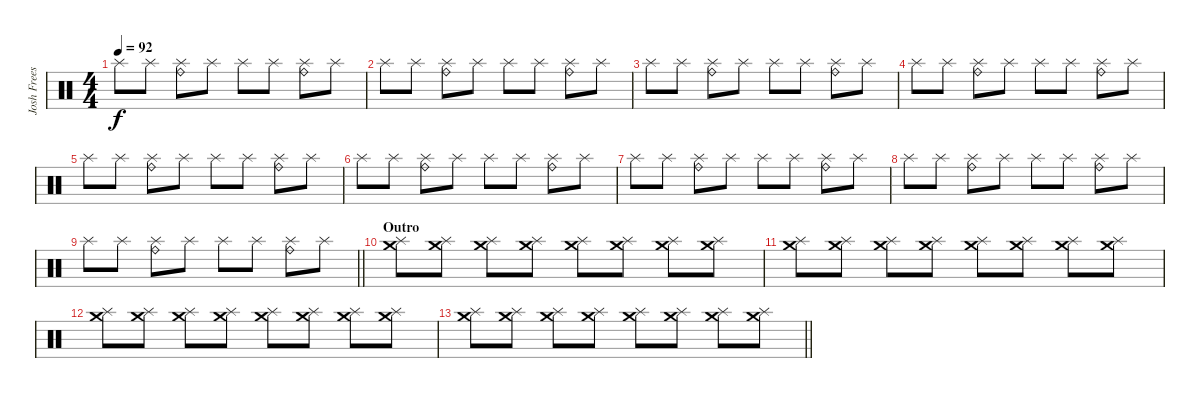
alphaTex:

\track ("Josh Freese (Studio Drummer)" "Josh Frees") {instrument percussion}
\staff {score}
\articulation defaults
\ts (4 4)
\tempo 92
\clef neutral
\ks c "Splash (hit)".8{dy f} "Splash (hit)".8
("Splash (hit)" "Ride (bell)").8 "Splash (hit)".8 "Splash (hit)".8 "Splash (hit)".8 ("Splash (hit)" "Ride (bell)").8 "Splash (hit)".8 |
"Splash (hit)".8 "Splash (hit)".8 ("Splash (hit)" "Ride (bell)").8 "Splash (hit)".8 "Splash (hit)".8 "Splash (hit)".8 ("Splash (hit)" "Ride (bell)").8 "Splash (hit)".8 |
"Splash (hit)".8 "Splash (hit)".8 ("Splash (hit)" "Ride (bell)").8 "Splash (hit)".8 "Splash (hit)".8 "Splash (hit)".8 ("Splash (hit)" "Ride (bell)").8 "Splash (hit)".8 |
"Splash (hit)".8 "Splash (hit)".8 ("Splash (hit)" "Ride (bell)").8 "Splash (hit)".8 "Splash (hit)".8 "Splash (hit)".8 ("Splash (hit)" "Ride (bell)").8 "Splash (hit)".8 |
"Splash (hit)".8 "Splash (hit)".8 ("Splash (hit)" "Ride (bell)").8 "Splash (hit)".8 "Splash (hit)".8 "Splash (hit)".8 ("Splash (hit)" "Ride (bell)").8 "Splash (hit)".8 |
"Splash (hit)".8 "Splash (hit)".8 ("Splash (hit)" "Ride (bell)").8 "Splash (hit)".8 "Splash (hit)".8 "Splash (hit)".8 ("Splash (hit)" "Ride (bell)").8 "Splash (hit)".8 |
"Splash (hit)".8 "Splash (hit)".8 ("Splash (hit)" "Ride (bell)").8 "Splash (hit)".8 "Splash (hit)".8 "Splash (hit)".8 ("Splash (hit)" "Ride (bell)").8 "Splash (hit)".8 |
"Splash (hit)".8 "Splash (hit)".8 ("Splash (hit)" "Ride (bell)").8 "Splash (hit)".8 "Splash (hit)".8 "Splash (hit)".8 ("Splash (hit)" "Ride (bell)").8 "Splash (hit)".8 |
\barLineRight lightlight "Splash (hit)".8 "Splash (hit)".8
("Splash (hit)" "Ride (bell)").8 "Splash (hit)".8 "Splash (hit)".8 "Splash (hit)".8 ("Splash (hit)" "Ride (bell)").8 "Splash (hit)".8 |
\section ("" "Outro")
("Splash (hit)" "Crash medium (hit)").8 ("Splash (hit)" "Crash medium (hit)").8 ("Splash (hit)" "Crash medium (hit)").8 ("Splash (hit)" "Crash medium (hit)").8 ("Splash (hit)" "Crash medium (hit)").8 ("Splash (hit)" "Crash medium (hit)").8 ("Splash (hit)" "Crash medium (hit)").8 ("Splash (hit)" "Crash medium (hit)").8 |
("Splash (hit)" "Crash medium (hit)").8 ("Splash (hit)" "Crash medium (hit)").8 ("Splash (hit)" "Crash medium (hit)").8 ("Splash (hit)" "Crash medium (hit)").8 ("Splash (hit)" "Crash medium (hit)").8 ("Splash (hit)" "Crash medium (hit)").8 ("Splash (hit)" "Crash medium (hit)").8 ("Splash (hit)" "Crash medium (hit)").8 |
("Splash (hit)" "Crash medium (hit)").8 ("Splash (hit)" "Crash medium (hit)").8 ("Splash (hit)" "Crash medium (hit)").8 ("Splash (hit)" "Crash medium (hit)").8 ("Splash (hit)" "Crash medium (hit)").8 ("Splash (hit)" "Crash medium (hit)").8 ("Splash (hit)" "Crash medium (hit)").8 ("Splash (hit)" "Crash medium (hit)").8 |
\barLineRight lightlight
("Splash (hit)" "Crash medium (hit)").8 ("Splash (hit)" "Crash medium (hit)").8 ("Splash (hit)" "Crash medium (hit)").8 ("Splash (hit)" "Crash medium (hit)").8 ("Splash (hit)" "Crash medium (hit)").8 ("Splash (hit)" "Crash medium (hit)").8 ("Splash (hit)" "Crash medium (hit)").8 ("Splash (hit)" "Crash medium (hit)").8
